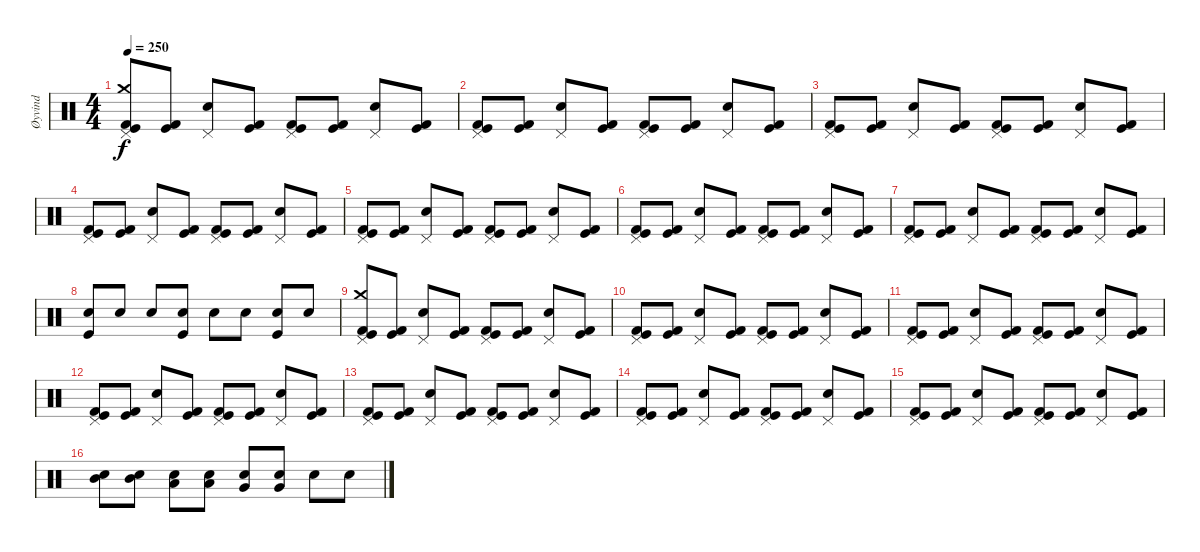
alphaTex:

\track ("Øyvind" "Øyvind") {instrument percussion}
\staff {score}
\articulation defaults
\ts (4 4)
\tempo 250
\clef neutral
\ks c
("Kick (hit) 2" "Crash medium (hit)" "Pedal Hi-Hat (hit)" "Kick (hit)").8{dy f} ("Kick (hit) 2" "Kick (hit)").8 ("Snare (hit) 2" "Pedal Hi-Hat (hit)").8 ("Kick (hit) 2" "Kick (hit)").8 ("Kick (hit) 2" "Pedal Hi-Hat (hit)" "Kick (hit)").8 ("Kick (hit) 2" "Kick (hit)").8 ("Snare (hit) 2" "Pedal Hi-Hat (hit)").8 ("Kick (hit) 2" "Kick (hit)").8 |
("Kick (hit) 2" "Pedal Hi-Hat (hit)" "Kick (hit)").8 ("Kick (hit) 2" "Kick (hit)").8 ("Snare (hit) 2" "Pedal Hi-Hat (hit)").8 ("Kick (hit) 2" "Kick (hit)").8 ("Kick (hit) 2" "Pedal Hi-Hat (hit)" "Kick (hit)").8 ("Kick (hit) 2" "Kick (hit)").8 ("Snare (hit) 2" "Pedal Hi-Hat (hit)").8 ("Kick (hit) 2" "Kick (hit)").8 |
("Kick (hit) 2" "Pedal Hi-Hat (hit)" "Kick (hit)").8 ("Kick (hit) 2" "Kick (hit)").8 ("Snare (hit) 2" "Pedal Hi-Hat (hit)").8 ("Kick (hit) 2" "Kick (hit)").8 ("Kick (hit) 2" "Pedal Hi-Hat (hit)" "Kick (hit)").8 ("Kick (hit) 2" "Kick (hit)").8 ("Snare (hit) 2" "Pedal Hi-Hat (hit)").8 ("Kick (hit) 2" "Kick (hit)").8 |
("Kick (hit) 2" "Pedal Hi-Hat (hit)" "Kick (hit)").8 ("Kick (hit) 2" "Kick (hit)").8 ("Snare (hit) 2" "Pedal Hi-Hat (hit)").8 ("Kick (hit) 2" "Kick (hit)").8 ("Kick (hit) 2" "Pedal Hi-Hat (hit)" "Kick (hit)").8 ("Kick (hit) 2" "Kick (hit)").8 ("Snare (hit) 2" "Pedal Hi-Hat (hit)").8 ("Kick (hit) 2" "Kick (hit)").8 |
("Kick (hit) 2" "Pedal Hi-Hat (hit)" "Kick (hit)").8 ("Kick (hit) 2" "Kick (hit)").8 ("Snare (hit) 2" "Pedal Hi-Hat (hit)").8 ("Kick (hit) 2" "Kick (hit)").8 ("Kick (hit) 2" "Pedal Hi-Hat (hit)" "Kick (hit)").8 ("Kick (hit) 2" "Kick (hit)").8 ("Snare (hit) 2" "Pedal Hi-Hat (hit)").8 ("Kick (hit) 2" "Kick (hit)").8 |
("Kick (hit) 2" "Pedal Hi-Hat (hit)" "Kick (hit)").8 ("Kick (hit) 2" "Kick (hit)").8 ("Snare (hit) 2" "Pedal Hi-Hat (hit)").8 ("Kick (hit) 2" "Kick (hit)").8 ("Kick (hit) 2" "Pedal Hi-Hat (hit)" "Kick (hit)").8 ("Kick (hit) 2" "Kick (hit)").8 ("Snare (hit) 2" "Pedal Hi-Hat (hit)").8 ("Kick (hit) 2" "Kick (hit)").8 |
("Kick (hit) 2" "Pedal Hi-Hat (hit)" "Kick (hit)").8 ("Kick (hit) 2" "Kick (hit)").8 ("Snare (hit) 2" "Pedal Hi-Hat (hit)").8 ("Kick (hit) 2" "Kick (hit)").8 ("Kick (hit) 2" "Pedal Hi-Hat (hit)" "Kick (hit)").8 ("Kick (hit) 2" "Kick (hit)").8 ("Snare (hit) 2" "Pedal Hi-Hat (hit)").8 ("Kick (hit) 2" "Kick (hit)").8 |
("Kick (hit)" "Snare (hit) 2").8 "Snare (hit) 2".8 "Snare (hit) 2".8 ("Kick (hit)" "Snare (hit) 2").8 "Snare (hit) 2".8 "Snare (hit) 2".8 ("Kick (hit)" "Snare (hit) 2").8 "Snare (hit) 2".8 |
("Kick (hit) 2" "Crash medium (hit)" "Pedal Hi-Hat (hit)" "Kick (hit)").8 ("Kick (hit) 2" "Kick (hit)").8 ("Snare (hit) 2" "Pedal Hi-Hat (hit)").8 ("Kick (hit) 2" "Kick (hit)").8 ("Kick (hit) 2" "Pedal Hi-Hat (hit)" "Kick (hit)").8 ("Kick (hit) 2" "Kick (hit)").8 ("Snare (hit) 2" "Pedal Hi-Hat (hit)").8 ("Kick (hit) 2" "Kick (hit)").8 |
("Kick (hit) 2" "Pedal Hi-Hat (hit)" "Kick (hit)").8 ("Kick (hit) 2" "Kick (hit)").8 ("Snare (hit) 2" "Pedal Hi-Hat (hit)").8 ("Kick (hit) 2" "Kick (hit)").8 ("Kick (hit) 2" "Pedal Hi-Hat (hit)" "Kick (hit)").8 ("Kick (hit) 2" "Kick (hit)").8 ("Snare (hit) 2" "Pedal Hi-Hat (hit)").8 ("Kick (hit) 2" "Kick (hit)").8 |
("Kick (hit) 2" "Pedal Hi-Hat (hit)" "Kick (hit)").8 ("Kick (hit) 2" "Kick (hit)").8 ("Snare (hit) 2" "Pedal Hi-Hat (hit)").8 ("Kick (hit) 2" "Kick (hit)").8 ("Kick (hit) 2" "Pedal Hi-Hat (hit)" "Kick (hit)").8 ("Kick (hit) 2" "Kick (hit)").8 ("Snare (hit) 2" "Pedal Hi-Hat (hit)").8 ("Kick (hit) 2" "Kick (hit)").8 |
("Kick (hit) 2" "Pedal Hi-Hat (hit)" "Kick (hit)").8 ("Kick (hit) 2" "Kick (hit)").8 ("Snare (hit) 2" "Pedal Hi-Hat (hit)").8 ("Kick (hit) 2" "Kick (hit)").8 ("Kick (hit) 2" "Pedal Hi-Hat (hit)" "Kick (hit)").8 ("Kick (hit) 2" "Kick (hit)").8 ("Snare (hit) 2" "Pedal Hi-Hat (hit)").8 ("Kick (hit) 2" "Kick (hit)").8 |
("Kick (hit) 2" "Pedal Hi-Hat (hit)" "Kick (hit)").8 ("Kick (hit) 2" "Kick (hit)").8 ("Snare (hit) 2" "Pedal Hi-Hat (hit)").8 ("Kick (hit) 2" "Kick (hit)").8 ("Kick (hit) 2" "Pedal Hi-Hat (hit)" "Kick (hit)").8 ("Kick (hit) 2" "Kick (hit)").8 ("Snare (hit) 2" "Pedal Hi-Hat (hit)").8 ("Kick (hit) 2" "Kick (hit)").8 |
("Kick (hit) 2" "Pedal Hi-Hat (hit)" "Kick (hit)").8 ("Kick (hit) 2" "Kick (hit)").8 ("Snare (hit) 2" "Pedal Hi-Hat (hit)").8 ("Kick (hit) 2" "Kick (hit)").8 ("Kick (hit) 2" "Pedal Hi-Hat (hit)" "Kick (hit)").8 ("Kick (hit) 2" "Kick (hit)").8 ("Snare (hit) 2" "Pedal Hi-Hat (hit)").8 ("Kick (hit) 2" "Kick (hit)").8 |
("Kick (hit) 2" "Pedal Hi-Hat (hit)" "Kick (hit)").8 ("Kick (hit) 2" "Kick (hit)").8 ("Snare (hit) 2" "Pedal Hi-Hat (hit)").8 ("Kick (hit) 2" "Kick (hit)").8 ("Kick (hit) 2" "Pedal Hi-Hat (hit)" "Kick (hit)").8 ("Kick (hit) 2" "Kick (hit)").8 ("Snare (hit) 2" "Pedal Hi-Hat (hit)").8 ("Kick (hit) 2" "Kick (hit)").8 |
("Mid Tom (hit)" "Snare (hit) 2").8 ("Mid Tom (hit)" "Snare (hit) 2").8 ("Low Tom (hit)" "Snare (hit) 2").8 ("Low Tom (hit)" "Snare (hit) 2").8 ("Very Low Tom (hit)" "Snare (hit) 2").8 ("Very Low Tom (hit)" "Snare (hit) 2").8 "Snare (hit) 2".8 "Snare (hit) 2".8
